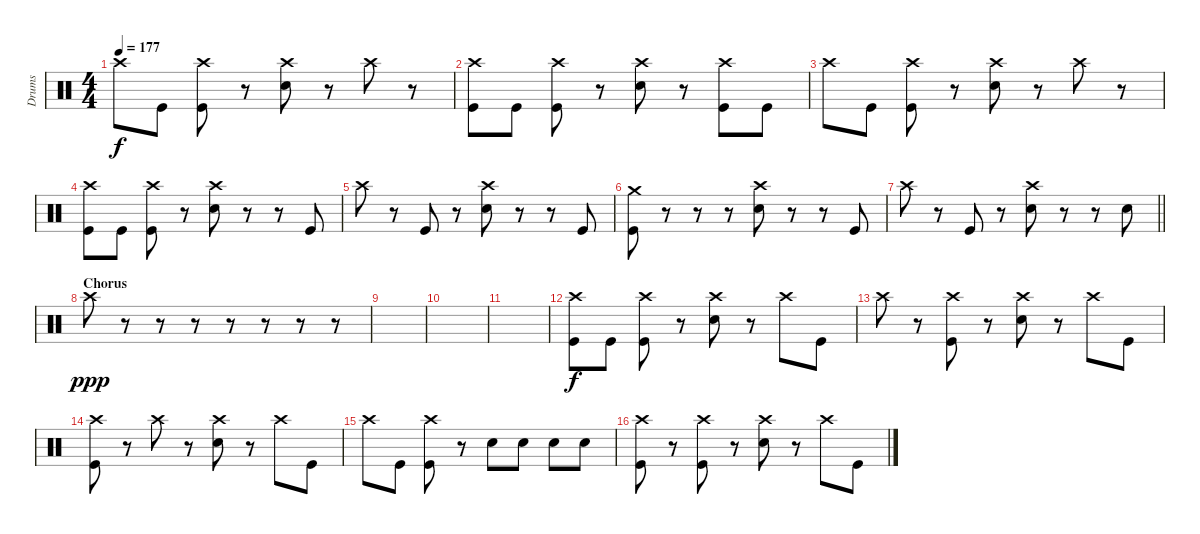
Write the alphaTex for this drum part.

\track ("Drums" "Drums") {instrument percussion}
\staff {score}
\articulation defaults
\ts (4 4)
\tempo 177
\clef neutral
\ks c "Crash high (hit)".8{dy f} "Kick (hit)".8
("Crash high (hit)" "Kick (hit)").8 r.8 ("Crash high (hit)" "Snare (hit) 2").8 r.8 "Crash high (hit)".8 r.8 |
("Crash high (hit)" "Kick (hit)").8 "Kick (hit)".8 ("Crash high (hit)" "Kick (hit)").8 r.8 ("Crash high (hit)" "Snare (hit) 2").8 r.8 ("Crash high (hit)" "Kick (hit)").8 "Kick (hit)".8 |
"Crash high (hit)".8 "Kick (hit)".8 ("Crash high (hit)" "Kick (hit)").8 r.8 ("Crash high (hit)" "Snare (hit) 2").8 r.8 "Crash high (hit)".8 r.8 |
("Crash high (hit)" "Kick (hit)").8 "Kick (hit)".8 ("Crash high (hit)" "Kick (hit)").8 r.8 ("Crash high (hit)" "Snare (hit) 2").8 r.8 r.8 "Kick (hit)".8 |
"Crash high (hit)".8 r.8 "Kick (hit)".8 r.8 ("Crash high (hit)" "Snare (hit) 2").8 r.8 r.8 "Kick (hit)".8 |
("Crash medium (hit)" "Kick (hit)").8 r.8 r.8 r.8 ("Crash high (hit)" "Snare (hit) 2").8 r.8 r.8 "Kick (hit)".8 |
\barLineRight lightlight "Crash high (hit)".8
r.8 "Kick (hit)".8 r.8 ("Crash high (hit)" "Snare (hit) 2").8 r.8 r.8 "Snare (hit) 2".8 |
\section ("" "Chorus")
"Crash high (hit)".8{dy ppp} r.8 r.8 r.8 r.8 r.8 r.8 r.8 |
|
|
|
("Crash high (hit)" "Kick (hit)").8{dy f} "Kick (hit)".8 ("Crash high (hit)" "Kick (hit)").8 r.8 ("Crash high (hit)" "Snare (hit) 2").8 r.8 "Crash high (hit)".8 "Kick (hit)".8 |
"Crash high (hit)".8 r.8 ("Crash high (hit)" "Kick (hit)").8 r.8 ("Crash high (hit)" "Snare (hit) 2").8 r.8 "Crash high (hit)".8 "Kick (hit)".8 |
("Crash high (hit)" "Kick (hit)").8 r.8 "Crash high (hit)".8 r.8 ("Crash high (hit)" "Snare (hit) 2").8 r.8 "Crash high (hit)".8 "Kick (hit)".8 |
"Crash high (hit)".8 "Kick (hit)".8 ("Crash high (hit)" "Kick (hit)").8 r.8 "Snare (hit) 2".8 "Snare (hit) 2".8 "Snare (hit) 2".8 "Snare (hit) 2".8 |
("Crash high (hit)" "Kick (hit)").8 r.8 ("Crash high (hit)" "Kick (hit)").8 r.8 ("Crash high (hit)" "Snare (hit) 2").8 r.8 "Crash high (hit)".8 "Kick (hit)".8
